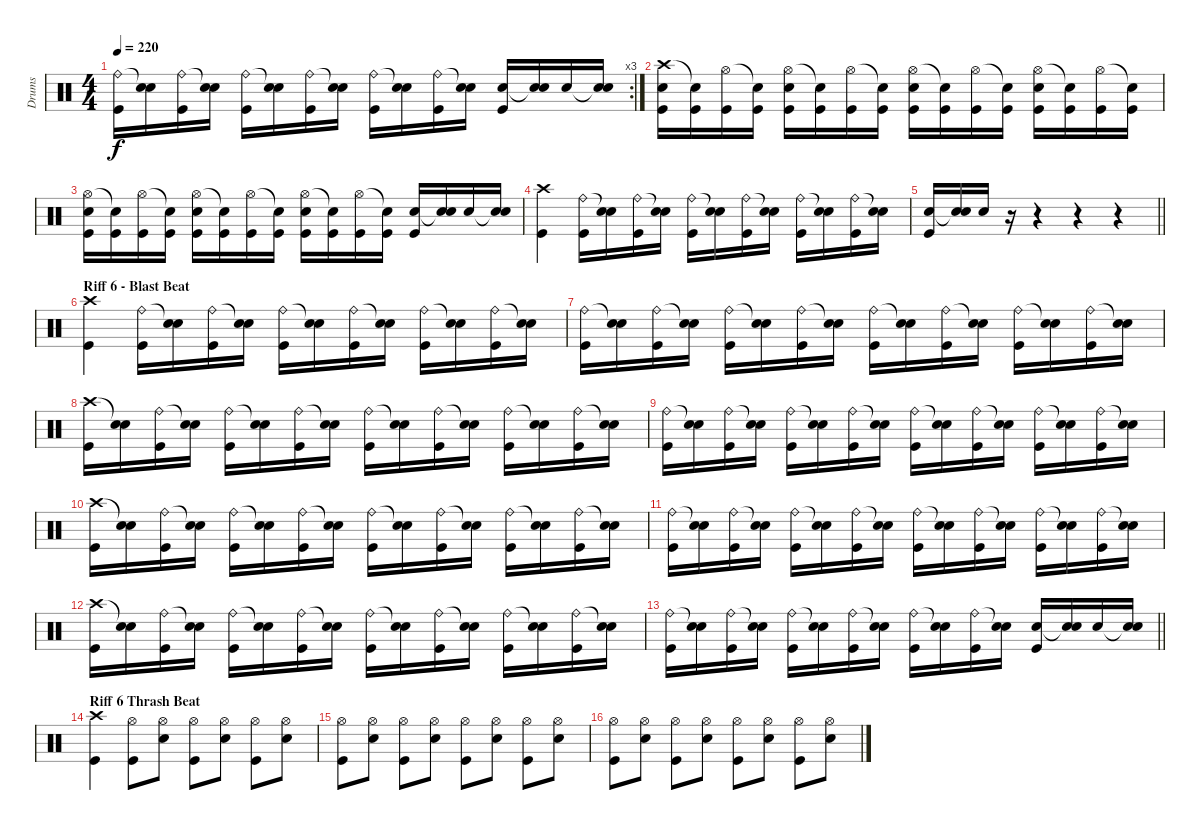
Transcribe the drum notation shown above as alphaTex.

\track ("Drums" "Drums") {instrument percussion}
\staff {score}
\articulation defaults
\rc 3
\ts (4 4)
\tempo 220
\clef neutral
\ks c
("Ride (bell)" "Kick (hit)").16{dy f} ("Snare (hit)"{t} "Electric Snare (hit)").16 ("Ride (bell)" "Kick (hit)").16 ("Snare (hit)"{t} "Electric Snare (hit)").16 ("Ride (bell)" "Kick (hit)").16 ("Snare (hit)"{t} "Electric Snare (hit)").16 ("Ride (bell)" "Kick (hit)").16 ("Snare (hit)"{t} "Electric Snare (hit)").16 ("Ride (bell)" "Kick (hit)").16 ("Snare (hit)"{t} "Electric Snare (hit)").16 ("Ride (bell)" "Kick (hit)").16 ("Snare (hit)"{t} "Electric Snare (hit)").16 ("Electric Snare (hit)" "Kick (hit)").16 ("Snare (hit)"{t} "Electric Snare (hit)").16 "Electric Snare (hit)".16 ("Snare (hit)"{t} "Electric Snare (hit)").16 |
("Crash high (hit)" "Electric Snare (hit)" "Kick (hit)").16 ("Snare (hit)"{t} "Kick (hit)").16 ("Hi-Hat (open)" "Kick (hit)").16 ("Snare (hit)"{t} "Kick (hit)").16 ("Hi-Hat (open)" "Electric Snare (hit)" "Kick (hit)").16 ("Snare (hit)"{t} "Kick (hit)").16 ("Hi-Hat (open)" "Kick (hit)").16 ("Snare (hit)"{t} "Kick (hit)").16 ("Hi-Hat (open)" "Electric Snare (hit)" "Kick (hit)").16 ("Snare (hit)"{t} "Kick (hit)").16 ("Hi-Hat (open)" "Kick (hit)").16 ("Snare (hit)"{t} "Kick (hit)").16 ("Hi-Hat (open)" "Electric Snare (hit)" "Kick (hit)").16 ("Snare (hit)"{t} "Kick (hit)").16 ("Hi-Hat (open)" "Kick (hit)").16 ("Snare (hit)"{t} "Kick (hit)").16 |
("Hi-Hat (open)" "Electric Snare (hit)" "Kick (hit)").16 ("Snare (hit)"{t} "Kick (hit)").16 ("Hi-Hat (open)" "Kick (hit)").16 ("Snare (hit)"{t} "Kick (hit)").16 ("Hi-Hat (open)" "Electric Snare (hit)" "Kick (hit)").16 ("Snare (hit)"{t} "Kick (hit)").16 ("Hi-Hat (open)" "Kick (hit)").16 ("Snare (hit)"{t} "Kick (hit)").16 ("Hi-Hat (open)" "Electric Snare (hit)" "Kick (hit)").16 ("Snare (hit)"{t} "Kick (hit)").16 ("Hi-Hat (open)" "Kick (hit)").16 ("Snare (hit)"{t} "Kick (hit)").16 ("Electric Snare (hit)" "Kick (hit)").16 ("Snare (hit)"{t} "Electric Snare (hit)").16 "Electric Snare (hit)".16 ("Snare (hit)"{t} "Electric Snare (hit)").16 |
("Crash high (hit)" "Kick (hit)").4 ("Ride (bell)" "Kick (hit)").16 ("Snare (hit)"{t} "Electric Snare (hit)").16 ("Ride (bell)" "Kick (hit)").16 ("Snare (hit)"{t} "Electric Snare (hit)").16 ("Ride (bell)" "Kick (hit)").16 ("Snare (hit)"{t} "Electric Snare (hit)").16 ("Ride (bell)" "Kick (hit)").16 ("Snare (hit)"{t} "Electric Snare (hit)").16 ("Ride (bell)" "Kick (hit)").16 ("Snare (hit)"{t} "Electric Snare (hit)").16 ("Ride (bell)" "Kick (hit)").16 ("Snare (hit)"{t} "Electric Snare (hit)").16 |
\barLineRight lightlight
("Electric Snare (hit)" "Kick (hit)").16 ("Snare (hit)"{t} "Electric Snare (hit)").16 "Electric Snare (hit)".16 r.16 r.4 r.4 r.4 |
\section ("" "Riff 6 - Blast Beat")
("Crash high (hit)" "Kick (hit)").4 ("Ride (bell)" "Kick (hit)").16 ("Snare (hit)"{t} "Electric Snare (hit)").16 ("Ride (bell)" "Kick (hit)").16 ("Snare (hit)"{t} "Electric Snare (hit)").16 ("Ride (bell)" "Kick (hit)").16 ("Snare (hit)"{t} "Electric Snare (hit)").16 ("Ride (bell)" "Kick (hit)").16 ("Snare (hit)"{t} "Electric Snare (hit)").16 ("Ride (bell)" "Kick (hit)").16 ("Snare (hit)"{t} "Electric Snare (hit)").16 ("Ride (bell)" "Kick (hit)").16 ("Snare (hit)"{t} "Electric Snare (hit)").16 |
("Ride (bell)" "Kick (hit)").16 ("Snare (hit)"{t} "Electric Snare (hit)").16 ("Ride (bell)" "Kick (hit)").16 ("Snare (hit)"{t} "Electric Snare (hit)").16 ("Ride (bell)" "Kick (hit)").16 ("Snare (hit)"{t} "Electric Snare (hit)").16 ("Ride (bell)" "Kick (hit)").16 ("Snare (hit)"{t} "Electric Snare (hit)").16 ("Ride (bell)" "Kick (hit)").16 ("Snare (hit)"{t} "Electric Snare (hit)").16 ("Ride (bell)" "Kick (hit)").16 ("Snare (hit)"{t} "Electric Snare (hit)").16 ("Ride (bell)" "Kick (hit)").16 ("Snare (hit)"{t} "Electric Snare (hit)").16 ("Ride (bell)" "Kick (hit)").16 ("Snare (hit)"{t} "Electric Snare (hit)").16 |
("Crash high (hit)" "Kick (hit)").16 ("Snare (hit)"{t} "Electric Snare (hit)").16 ("Ride (bell)" "Kick (hit)").16 ("Snare (hit)"{t} "Electric Snare (hit)").16 ("Ride (bell)" "Kick (hit)").16 ("Snare (hit)"{t} "Electric Snare (hit)").16 ("Ride (bell)" "Kick (hit)").16 ("Snare (hit)"{t} "Electric Snare (hit)").16 ("Ride (bell)" "Kick (hit)").16 ("Snare (hit)"{t} "Electric Snare (hit)").16 ("Ride (bell)" "Kick (hit)").16 ("Snare (hit)"{t} "Electric Snare (hit)").16 ("Ride (bell)" "Kick (hit)").16 ("Snare (hit)"{t} "Electric Snare (hit)").16 ("Ride (bell)" "Kick (hit)").16 ("Snare (hit)"{t} "Electric Snare (hit)").16 |
("Ride (bell)" "Kick (hit)").16 ("Snare (hit)"{t} "Electric Snare (hit)").16 ("Ride (bell)" "Kick (hit)").16 ("Snare (hit)"{t} "Electric Snare (hit)").16 ("Ride (bell)" "Kick (hit)").16 ("Snare (hit)"{t} "Electric Snare (hit)").16 ("Ride (bell)" "Kick (hit)").16 ("Snare (hit)"{t} "Electric Snare (hit)").16 ("Ride (bell)" "Kick (hit)").16 ("Snare (hit)"{t} "Electric Snare (hit)").16 ("Ride (bell)" "Kick (hit)").16 ("Snare (hit)"{t} "Electric Snare (hit)").16 ("Ride (bell)" "Kick (hit)").16 ("Snare (hit)"{t} "Electric Snare (hit)").16 ("Ride (bell)" "Kick (hit)").16 ("Snare (hit)"{t} "Electric Snare (hit)").16 |
("Crash high (hit)" "Kick (hit)").16 ("Snare (hit)"{t} "Electric Snare (hit)").16 ("Ride (bell)" "Kick (hit)").16 ("Snare (hit)"{t} "Electric Snare (hit)").16 ("Ride (bell)" "Kick (hit)").16 ("Snare (hit)"{t} "Electric Snare (hit)").16 ("Ride (bell)" "Kick (hit)").16 ("Snare (hit)"{t} "Electric Snare (hit)").16 ("Ride (bell)" "Kick (hit)").16 ("Snare (hit)"{t} "Electric Snare (hit)").16 ("Ride (bell)" "Kick (hit)").16 ("Snare (hit)"{t} "Electric Snare (hit)").16 ("Ride (bell)" "Kick (hit)").16 ("Snare (hit)"{t} "Electric Snare (hit)").16 ("Ride (bell)" "Kick (hit)").16 ("Snare (hit)"{t} "Electric Snare (hit)").16 |
("Ride (bell)" "Kick (hit)").16 ("Snare (hit)"{t} "Electric Snare (hit)").16 ("Ride (bell)" "Kick (hit)").16 ("Snare (hit)"{t} "Electric Snare (hit)").16 ("Ride (bell)" "Kick (hit)").16 ("Snare (hit)"{t} "Electric Snare (hit)").16 ("Ride (bell)" "Kick (hit)").16 ("Snare (hit)"{t} "Electric Snare (hit)").16 ("Ride (bell)" "Kick (hit)").16 ("Snare (hit)"{t} "Electric Snare (hit)").16 ("Ride (bell)" "Kick (hit)").16 ("Snare (hit)"{t} "Electric Snare (hit)").16 ("Ride (bell)" "Kick (hit)").16 ("Snare (hit)"{t} "Electric Snare (hit)").16 ("Ride (bell)" "Kick (hit)").16 ("Snare (hit)"{t} "Electric Snare (hit)").16 |
("Crash high (hit)" "Kick (hit)").16 ("Snare (hit)"{t} "Electric Snare (hit)").16 ("Ride (bell)" "Kick (hit)").16 ("Snare (hit)"{t} "Electric Snare (hit)").16 ("Ride (bell)" "Kick (hit)").16 ("Snare (hit)"{t} "Electric Snare (hit)").16 ("Ride (bell)" "Kick (hit)").16 ("Snare (hit)"{t} "Electric Snare (hit)").16 ("Ride (bell)" "Kick (hit)").16 ("Snare (hit)"{t} "Electric Snare (hit)").16 ("Ride (bell)" "Kick (hit)").16 ("Snare (hit)"{t} "Electric Snare (hit)").16 ("Ride (bell)" "Kick (hit)").16 ("Snare (hit)"{t} "Electric Snare (hit)").16 ("Ride (bell)" "Kick (hit)").16 ("Snare (hit)"{t} "Electric Snare (hit)").16 |
\barLineRight lightlight
("Ride (bell)" "Kick (hit)").16 ("Snare (hit)"{t} "Electric Snare (hit)").16 ("Ride (bell)" "Kick (hit)").16 ("Snare (hit)"{t} "Electric Snare (hit)").16 ("Ride (bell)" "Kick (hit)").16 ("Snare (hit)"{t} "Electric Snare (hit)").16 ("Ride (bell)" "Kick (hit)").16 ("Snare (hit)"{t} "Electric Snare (hit)").16 ("Ride (bell)" "Kick (hit)").16 ("Snare (hit)"{t} "Electric Snare (hit)").16 ("Ride (bell)" "Kick (hit)").16 ("Snare (hit)"{t} "Electric Snare (hit)").16 ("Electric Snare (hit)" "Kick (hit)").16 ("Snare (hit)"{t} "Electric Snare (hit)").16 "Electric Snare (hit)".16 ("Snare (hit)"{t} "Electric Snare (hit)").16 |
\section ("" "Riff 6 Thrash Beat")
("Crash high (hit)" "Kick (hit)").4 ("Hi-Hat (open)" "Kick (hit)").8 ("Hi-Hat (open)" "Electric Snare (hit)").8 ("Hi-Hat (open)" "Kick (hit)").8 ("Hi-Hat (open)" "Electric Snare (hit)").8 ("Hi-Hat (open)" "Kick (hit)").8 ("Hi-Hat (open)" "Electric Snare (hit)").8 |
("Hi-Hat (open)" "Kick (hit)").8 ("Hi-Hat (open)" "Electric Snare (hit)").8 ("Hi-Hat (open)" "Kick (hit)").8 ("Hi-Hat (open)" "Electric Snare (hit)").8 ("Hi-Hat (open)" "Kick (hit)").8 ("Hi-Hat (open)" "Electric Snare (hit)").8 ("Hi-Hat (open)" "Kick (hit)").8 ("Hi-Hat (open)" "Electric Snare (hit)").8 |
("Hi-Hat (open)" "Kick (hit)").8 ("Hi-Hat (open)" "Electric Snare (hit)").8 ("Hi-Hat (open)" "Kick (hit)").8 ("Hi-Hat (open)" "Electric Snare (hit)").8 ("Hi-Hat (open)" "Kick (hit)").8 ("Hi-Hat (open)" "Electric Snare (hit)").8 ("Hi-Hat (open)" "Kick (hit)").8 ("Hi-Hat (open)" "Electric Snare (hit)").8
